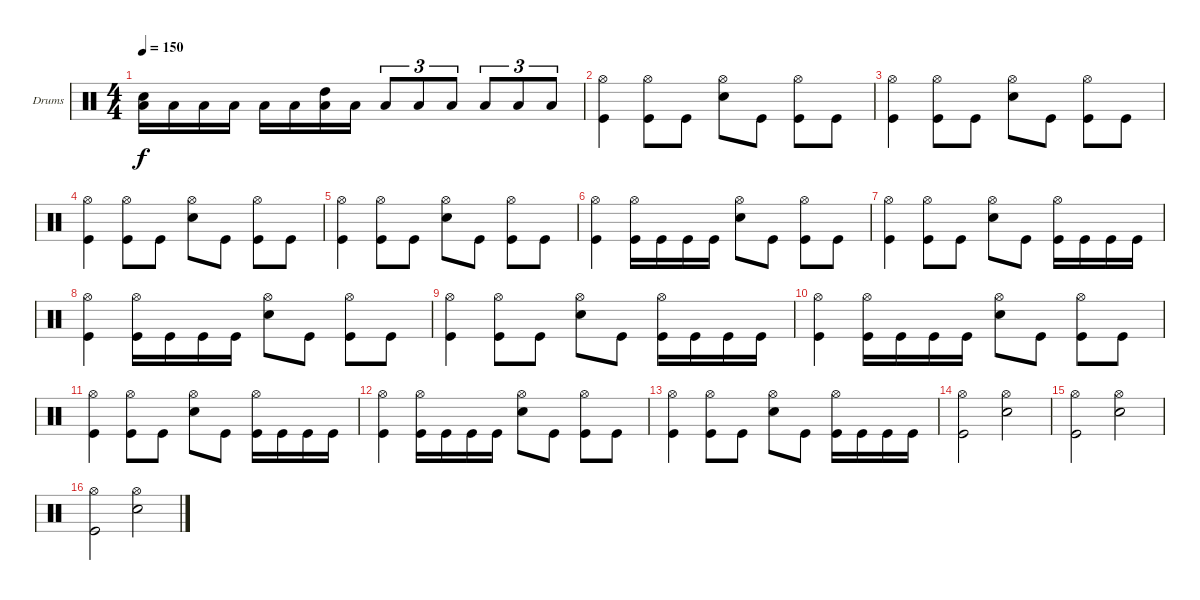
\defaultSystemsLayout 4
\bracketExtendMode groupsimilarinstruments
\firstSystemTrackNameOrientation horizontal
\otherSystemsTrackNameOrientation horizontal
\track ("Drumkit" "Drums") {instrument percussion}
\staff {score}
\articulation defaults
\ts (4 4)
\tempo 150
\clef neutral
\ks c
("Snare (hit) 2" "Low Tom (hit)").16{dy f} "Low Tom (hit)".16 "Low Tom (hit)".16 "Low Tom (hit)".16 "Low Tom (hit)".16 "Low Tom (hit)".16 ("Low Tom (hit)" "High Tom (hit)").16 "Low Tom (hit)".16 "Low Tom (hit)".8{tu (3 2)} "Low Tom (hit)".8{tu (3 2)} "Low Tom (hit)".8{tu (3 2)} "Low Tom (hit)".8{tu (3 2)} "Low Tom (hit)".8{tu (3 2)} "Low Tom (hit)".8{tu (3 2)} |
("Kick (hit)" "Hi-Hat (open)").4 ("Hi-Hat (open)" "Kick (hit)").8 "Kick (hit)".8 ("Snare (hit) 2" "Hi-Hat (open)").8 "Kick (hit)".8 ("Kick (hit)" "Hi-Hat (open)").8 "Kick (hit)".8 |
("Kick (hit)" "Hi-Hat (open)").4 ("Hi-Hat (open)" "Kick (hit)").8 "Kick (hit)".8 ("Snare (hit) 2" "Hi-Hat (open)").8 "Kick (hit)".8 ("Kick (hit)" "Hi-Hat (open)").8 "Kick (hit)".8 |
("Kick (hit)" "Hi-Hat (open)").4 ("Hi-Hat (open)" "Kick (hit)").8 "Kick (hit)".8 ("Snare (hit) 2" "Hi-Hat (open)").8 "Kick (hit)".8 ("Kick (hit)" "Hi-Hat (open)").8 "Kick (hit)".8 |
("Kick (hit)" "Hi-Hat (open)").4 ("Hi-Hat (open)" "Kick (hit)").8 "Kick (hit)".8 ("Snare (hit) 2" "Hi-Hat (open)").8 "Kick (hit)".8 ("Kick (hit)" "Hi-Hat (open)").8 "Kick (hit)".8 |
("Hi-Hat (open)" "Kick (hit)").4 ("Kick (hit)" "Hi-Hat (open)").16 "Kick (hit)".16 "Kick (hit)".16 "Kick (hit)".16 ("Snare (hit) 2" "Hi-Hat (open)").8 "Kick (hit)".8 ("Kick (hit)" "Hi-Hat (open)").8 "Kick (hit)".8 |
("Kick (hit)" "Hi-Hat (open)").4 ("Hi-Hat (open)" "Kick (hit)").8 "Kick (hit)".8 ("Snare (hit) 2" "Hi-Hat (open)").8 "Kick (hit)".8 ("Kick (hit)" "Hi-Hat (open)").16 "Kick (hit)".16 "Kick (hit)".16 "Kick (hit)".16 |
("Hi-Hat (open)" "Kick (hit)").4 ("Kick (hit)" "Hi-Hat (open)").16 "Kick (hit)".16 "Kick (hit)".16 "Kick (hit)".16 ("Snare (hit) 2" "Hi-Hat (open)").8 "Kick (hit)".8 ("Kick (hit)" "Hi-Hat (open)").8 "Kick (hit)".8 |
("Kick (hit)" "Hi-Hat (open)").4 ("Hi-Hat (open)" "Kick (hit)").8 "Kick (hit)".8 ("Snare (hit) 2" "Hi-Hat (open)").8 "Kick (hit)".8 ("Kick (hit)" "Hi-Hat (open)").16 "Kick (hit)".16 "Kick (hit)".16 "Kick (hit)".16 |
("Hi-Hat (open)" "Kick (hit)").4 ("Kick (hit)" "Hi-Hat (open)").16 "Kick (hit)".16 "Kick (hit)".16 "Kick (hit)".16 ("Snare (hit) 2" "Hi-Hat (open)").8 "Kick (hit)".8 ("Kick (hit)" "Hi-Hat (open)").8 "Kick (hit)".8 |
("Kick (hit)" "Hi-Hat (open)").4 ("Hi-Hat (open)" "Kick (hit)").8 "Kick (hit)".8 ("Snare (hit) 2" "Hi-Hat (open)").8 "Kick (hit)".8 ("Kick (hit)" "Hi-Hat (open)").16 "Kick (hit)".16 "Kick (hit)".16 "Kick (hit)".16 |
("Hi-Hat (open)" "Kick (hit)").4 ("Kick (hit)" "Hi-Hat (open)").16 "Kick (hit)".16 "Kick (hit)".16 "Kick (hit)".16 ("Snare (hit) 2" "Hi-Hat (open)").8 "Kick (hit)".8 ("Kick (hit)" "Hi-Hat (open)").8 "Kick (hit)".8 |
("Kick (hit)" "Hi-Hat (open)").4 ("Hi-Hat (open)" "Kick (hit)").8 "Kick (hit)".8 ("Snare (hit) 2" "Hi-Hat (open)").8 "Kick (hit)".8 ("Kick (hit)" "Hi-Hat (open)").16 "Kick (hit)".16 "Kick (hit)".16 "Kick (hit)".16 |
("Kick (hit)" "Hi-Hat (open)").2 ("Snare (hit) 2" "Hi-Hat (open)").2 |
("Kick (hit)" "Hi-Hat (open)").2 ("Snare (hit) 2" "Hi-Hat (open)").2 |
("Kick (hit)" "Hi-Hat (open)").2 ("Snare (hit) 2" "Hi-Hat (open)").2
